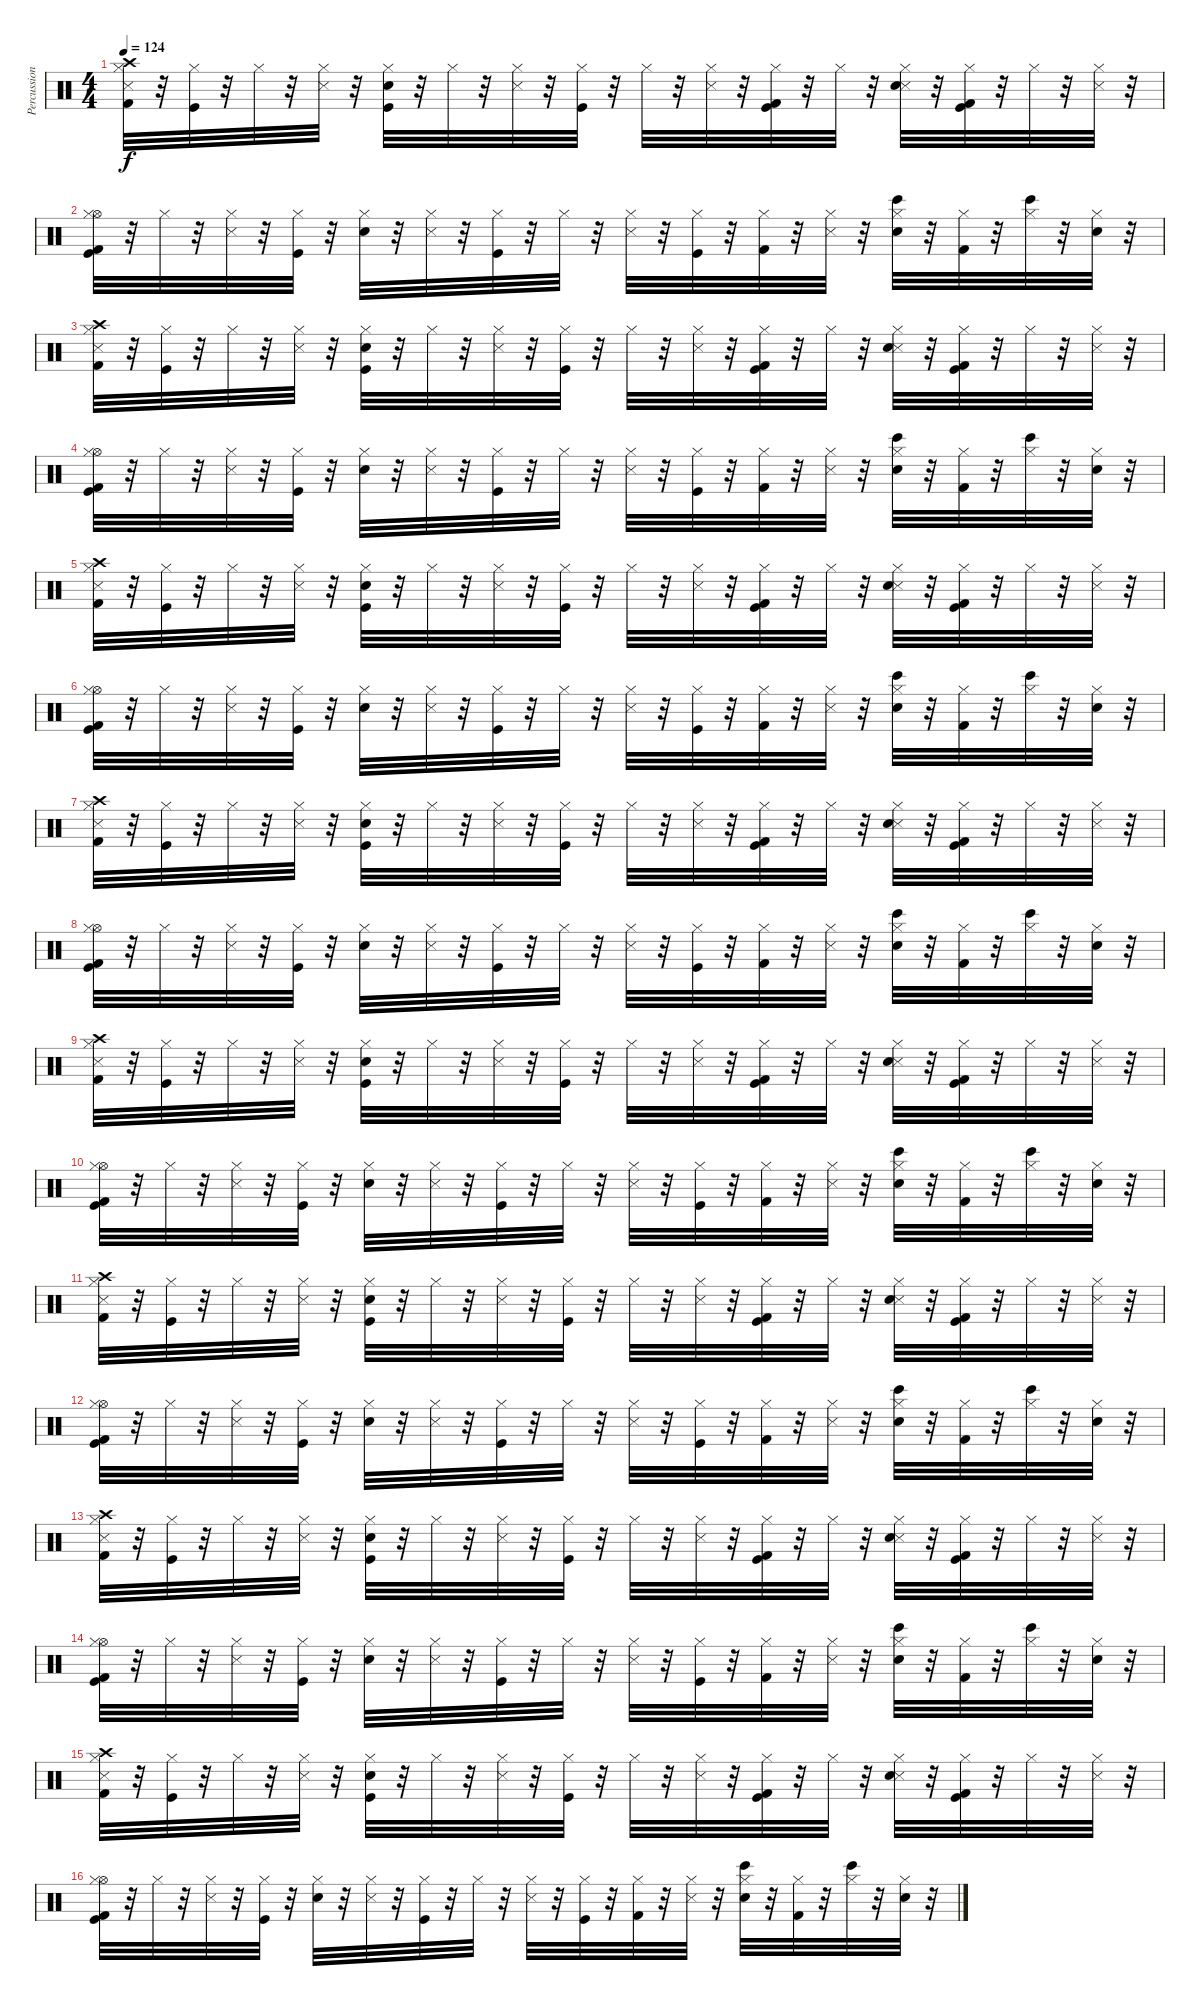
\track ("Percussions" "Percussion") {instrument percussion}
\staff {score}
\articulation defaults
\ts (4 4)
\tempo 124
\clef neutral
\ks c
("Metronome (hit)" "Crash high (hit)" "Kick (hit) 2" "Hi-Hat (closed)").32{dy f} r.32 ("Kick (hit)" "Hi-Hat (closed)").32 r.32 "Hi-Hat (closed)".32 r.32 ("Metronome (hit)" "Hi-Hat (closed)").32 r.32 ("Kick (hit)" "Hi-Hat (closed)" "Electric Snare (hit)").32 r.32 "Hi-Hat (closed)".32 r.32 ("Metronome (hit)" "Hi-Hat (closed)").32 r.32 ("Kick (hit)" "Hi-Hat (closed)").32 r.32 "Hi-Hat (closed)".32 r.32 ("Metronome (hit)" "Hi-Hat (closed)").32 r.32 ("Kick (hit)" "Hi-Hat (closed)" "Kick (hit) 2").32 r.32 "Hi-Hat (closed)".32 r.32 ("Metronome (hit)" "Hi-Hat (closed)" "Electric Snare (hit)").32 r.32 ("Kick (hit)" "Kick (hit) 2" "Hi-Hat (closed)").32 r.32 "Hi-Hat (closed)".32 r.32 ("Metronome (hit)" "Hi-Hat (closed)").32 r.32 |
("Kick (hit)" "Hi-Hat (open)" "Kick (hit) 2" "Hi-Hat (closed)").32 r.32 "Hi-Hat (closed)".32 r.32 ("Metronome (hit)" "Hi-Hat (closed)").32 r.32 ("Kick (hit)" "Hi-Hat (closed)").32 r.32 ("Electric Snare (hit)" "Hi-Hat (closed)").32 r.32 ("Metronome (hit)" "Hi-Hat (closed)").32 r.32 ("Kick (hit)" "Hi-Hat (closed)").32 r.32 "Hi-Hat (closed)".32 r.32 ("Metronome (hit)" "Hi-Hat (closed)").32 r.32 ("Kick (hit)" "Hi-Hat (closed)").32 r.32 ("Hi-Hat (closed)" "Kick (hit) 2").32 r.32 ("Metronome (hit)" "Hi-Hat (closed)").32 r.32 ("Bongo High (hit)" "Electric Snare (hit)" "Hi-Hat (closed)").32 r.32 ("Kick (hit) 2" "Hi-Hat (closed)").32 r.32 ("Bongo High (hit)" "Hi-Hat (closed)").32 r.32 ("Hi-Hat (closed)" "Electric Snare (hit)").32 r.32 |
("Metronome (hit)" "Crash high (hit)" "Kick (hit) 2" "Hi-Hat (closed)").32 r.32 ("Kick (hit)" "Hi-Hat (closed)").32 r.32 "Hi-Hat (closed)".32 r.32 ("Metronome (hit)" "Hi-Hat (closed)").32 r.32 ("Kick (hit)" "Hi-Hat (closed)" "Electric Snare (hit)").32 r.32 "Hi-Hat (closed)".32 r.32 ("Metronome (hit)" "Hi-Hat (closed)").32 r.32 ("Kick (hit)" "Hi-Hat (closed)").32 r.32 "Hi-Hat (closed)".32 r.32 ("Metronome (hit)" "Hi-Hat (closed)").32 r.32 ("Kick (hit)" "Hi-Hat (closed)" "Kick (hit) 2").32 r.32 "Hi-Hat (closed)".32 r.32 ("Metronome (hit)" "Hi-Hat (closed)" "Electric Snare (hit)").32 r.32 ("Kick (hit)" "Kick (hit) 2" "Hi-Hat (closed)").32 r.32 "Hi-Hat (closed)".32 r.32 ("Metronome (hit)" "Hi-Hat (closed)").32 r.32 |
("Kick (hit)" "Hi-Hat (open)" "Kick (hit) 2" "Hi-Hat (closed)").32 r.32 "Hi-Hat (closed)".32 r.32 ("Metronome (hit)" "Hi-Hat (closed)").32 r.32 ("Kick (hit)" "Hi-Hat (closed)").32 r.32 ("Electric Snare (hit)" "Hi-Hat (closed)").32 r.32 ("Metronome (hit)" "Hi-Hat (closed)").32 r.32 ("Kick (hit)" "Hi-Hat (closed)").32 r.32 "Hi-Hat (closed)".32 r.32 ("Metronome (hit)" "Hi-Hat (closed)").32 r.32 ("Kick (hit)" "Hi-Hat (closed)").32 r.32 ("Hi-Hat (closed)" "Kick (hit) 2").32 r.32 ("Metronome (hit)" "Hi-Hat (closed)").32 r.32 ("Bongo High (hit)" "Electric Snare (hit)" "Hi-Hat (closed)").32 r.32 ("Kick (hit) 2" "Hi-Hat (closed)").32 r.32 ("Bongo High (hit)" "Hi-Hat (closed)").32 r.32 ("Hi-Hat (closed)" "Electric Snare (hit)").32 r.32 |
("Metronome (hit)" "Crash high (hit)" "Kick (hit) 2" "Hi-Hat (closed)").32 r.32 ("Kick (hit)" "Hi-Hat (closed)").32 r.32 "Hi-Hat (closed)".32 r.32 ("Metronome (hit)" "Hi-Hat (closed)").32 r.32 ("Kick (hit)" "Hi-Hat (closed)" "Electric Snare (hit)").32 r.32 "Hi-Hat (closed)".32 r.32 ("Metronome (hit)" "Hi-Hat (closed)").32 r.32 ("Kick (hit)" "Hi-Hat (closed)").32 r.32 "Hi-Hat (closed)".32 r.32 ("Metronome (hit)" "Hi-Hat (closed)").32 r.32 ("Kick (hit)" "Hi-Hat (closed)" "Kick (hit) 2").32 r.32 "Hi-Hat (closed)".32 r.32 ("Metronome (hit)" "Hi-Hat (closed)" "Electric Snare (hit)").32 r.32 ("Kick (hit)" "Kick (hit) 2" "Hi-Hat (closed)").32 r.32 "Hi-Hat (closed)".32 r.32 ("Metronome (hit)" "Hi-Hat (closed)").32 r.32 |
("Kick (hit)" "Hi-Hat (open)" "Kick (hit) 2" "Hi-Hat (closed)").32 r.32 "Hi-Hat (closed)".32 r.32 ("Metronome (hit)" "Hi-Hat (closed)").32 r.32 ("Kick (hit)" "Hi-Hat (closed)").32 r.32 ("Electric Snare (hit)" "Hi-Hat (closed)").32 r.32 ("Metronome (hit)" "Hi-Hat (closed)").32 r.32 ("Kick (hit)" "Hi-Hat (closed)").32 r.32 "Hi-Hat (closed)".32 r.32 ("Metronome (hit)" "Hi-Hat (closed)").32 r.32 ("Kick (hit)" "Hi-Hat (closed)").32 r.32 ("Hi-Hat (closed)" "Kick (hit) 2").32 r.32 ("Metronome (hit)" "Hi-Hat (closed)").32 r.32 ("Bongo High (hit)" "Electric Snare (hit)" "Hi-Hat (closed)").32 r.32 ("Kick (hit) 2" "Hi-Hat (closed)").32 r.32 ("Bongo High (hit)" "Hi-Hat (closed)").32 r.32 ("Hi-Hat (closed)" "Electric Snare (hit)").32 r.32 |
("Metronome (hit)" "Crash high (hit)" "Kick (hit) 2" "Hi-Hat (closed)").32 r.32 ("Kick (hit)" "Hi-Hat (closed)").32 r.32 "Hi-Hat (closed)".32 r.32 ("Metronome (hit)" "Hi-Hat (closed)").32 r.32 ("Kick (hit)" "Hi-Hat (closed)" "Electric Snare (hit)").32 r.32 "Hi-Hat (closed)".32 r.32 ("Metronome (hit)" "Hi-Hat (closed)").32 r.32 ("Kick (hit)" "Hi-Hat (closed)").32 r.32 "Hi-Hat (closed)".32 r.32 ("Metronome (hit)" "Hi-Hat (closed)").32 r.32 ("Kick (hit)" "Hi-Hat (closed)" "Kick (hit) 2").32 r.32 "Hi-Hat (closed)".32 r.32 ("Metronome (hit)" "Hi-Hat (closed)" "Electric Snare (hit)").32 r.32 ("Kick (hit)" "Kick (hit) 2" "Hi-Hat (closed)").32 r.32 "Hi-Hat (closed)".32 r.32 ("Metronome (hit)" "Hi-Hat (closed)").32 r.32 |
("Kick (hit)" "Hi-Hat (open)" "Kick (hit) 2" "Hi-Hat (closed)").32 r.32 "Hi-Hat (closed)".32 r.32 ("Metronome (hit)" "Hi-Hat (closed)").32 r.32 ("Kick (hit)" "Hi-Hat (closed)").32 r.32 ("Electric Snare (hit)" "Hi-Hat (closed)").32 r.32 ("Metronome (hit)" "Hi-Hat (closed)").32 r.32 ("Kick (hit)" "Hi-Hat (closed)").32 r.32 "Hi-Hat (closed)".32 r.32 ("Metronome (hit)" "Hi-Hat (closed)").32 r.32 ("Kick (hit)" "Hi-Hat (closed)").32 r.32 ("Hi-Hat (closed)" "Kick (hit) 2").32 r.32 ("Metronome (hit)" "Hi-Hat (closed)").32 r.32 ("Bongo High (hit)" "Electric Snare (hit)" "Hi-Hat (closed)").32 r.32 ("Kick (hit) 2" "Hi-Hat (closed)").32 r.32 ("Bongo High (hit)" "Hi-Hat (closed)").32 r.32 ("Hi-Hat (closed)" "Electric Snare (hit)").32 r.32 |
("Metronome (hit)" "Crash high (hit)" "Kick (hit) 2" "Hi-Hat (closed)").32 r.32 ("Kick (hit)" "Hi-Hat (closed)").32 r.32 "Hi-Hat (closed)".32 r.32 ("Metronome (hit)" "Hi-Hat (closed)").32 r.32 ("Kick (hit)" "Hi-Hat (closed)" "Electric Snare (hit)").32 r.32 "Hi-Hat (closed)".32 r.32 ("Metronome (hit)" "Hi-Hat (closed)").32 r.32 ("Kick (hit)" "Hi-Hat (closed)").32 r.32 "Hi-Hat (closed)".32 r.32 ("Metronome (hit)" "Hi-Hat (closed)").32 r.32 ("Kick (hit)" "Hi-Hat (closed)" "Kick (hit) 2").32 r.32 "Hi-Hat (closed)".32 r.32 ("Metronome (hit)" "Hi-Hat (closed)" "Electric Snare (hit)").32 r.32 ("Kick (hit)" "Kick (hit) 2" "Hi-Hat (closed)").32 r.32 "Hi-Hat (closed)".32 r.32 ("Metronome (hit)" "Hi-Hat (closed)").32 r.32 |
("Kick (hit)" "Hi-Hat (open)" "Kick (hit) 2" "Hi-Hat (closed)").32 r.32 "Hi-Hat (closed)".32 r.32 ("Metronome (hit)" "Hi-Hat (closed)").32 r.32 ("Kick (hit)" "Hi-Hat (closed)").32 r.32 ("Electric Snare (hit)" "Hi-Hat (closed)").32 r.32 ("Metronome (hit)" "Hi-Hat (closed)").32 r.32 ("Kick (hit)" "Hi-Hat (closed)").32 r.32 "Hi-Hat (closed)".32 r.32 ("Metronome (hit)" "Hi-Hat (closed)").32 r.32 ("Kick (hit)" "Hi-Hat (closed)").32 r.32 ("Hi-Hat (closed)" "Kick (hit) 2").32 r.32 ("Metronome (hit)" "Hi-Hat (closed)").32 r.32 ("Bongo High (hit)" "Electric Snare (hit)" "Hi-Hat (closed)").32 r.32 ("Kick (hit) 2" "Hi-Hat (closed)").32 r.32 ("Bongo High (hit)" "Hi-Hat (closed)").32 r.32 ("Hi-Hat (closed)" "Electric Snare (hit)").32 r.32 |
("Metronome (hit)" "Crash high (hit)" "Kick (hit) 2" "Hi-Hat (closed)").32 r.32 ("Kick (hit)" "Hi-Hat (closed)").32 r.32 "Hi-Hat (closed)".32 r.32 ("Metronome (hit)" "Hi-Hat (closed)").32 r.32 ("Kick (hit)" "Hi-Hat (closed)" "Electric Snare (hit)").32 r.32 "Hi-Hat (closed)".32 r.32 ("Metronome (hit)" "Hi-Hat (closed)").32 r.32 ("Kick (hit)" "Hi-Hat (closed)").32 r.32 "Hi-Hat (closed)".32 r.32 ("Metronome (hit)" "Hi-Hat (closed)").32 r.32 ("Kick (hit)" "Hi-Hat (closed)" "Kick (hit) 2").32 r.32 "Hi-Hat (closed)".32 r.32 ("Metronome (hit)" "Hi-Hat (closed)" "Electric Snare (hit)").32 r.32 ("Kick (hit)" "Kick (hit) 2" "Hi-Hat (closed)").32 r.32 "Hi-Hat (closed)".32 r.32 ("Metronome (hit)" "Hi-Hat (closed)").32 r.32 |
("Kick (hit)" "Hi-Hat (open)" "Kick (hit) 2" "Hi-Hat (closed)").32 r.32 "Hi-Hat (closed)".32 r.32 ("Metronome (hit)" "Hi-Hat (closed)").32 r.32 ("Kick (hit)" "Hi-Hat (closed)").32 r.32 ("Electric Snare (hit)" "Hi-Hat (closed)").32 r.32 ("Metronome (hit)" "Hi-Hat (closed)").32 r.32 ("Kick (hit)" "Hi-Hat (closed)").32 r.32 "Hi-Hat (closed)".32 r.32 ("Metronome (hit)" "Hi-Hat (closed)").32 r.32 ("Kick (hit)" "Hi-Hat (closed)").32 r.32 ("Hi-Hat (closed)" "Kick (hit) 2").32 r.32 ("Metronome (hit)" "Hi-Hat (closed)").32 r.32 ("Bongo High (hit)" "Electric Snare (hit)" "Hi-Hat (closed)").32 r.32 ("Kick (hit) 2" "Hi-Hat (closed)").32 r.32 ("Bongo High (hit)" "Hi-Hat (closed)").32 r.32 ("Hi-Hat (closed)" "Electric Snare (hit)").32 r.32 |
("Metronome (hit)" "Crash high (hit)" "Kick (hit) 2" "Hi-Hat (closed)").32 r.32 ("Kick (hit)" "Hi-Hat (closed)").32 r.32 "Hi-Hat (closed)".32 r.32 ("Metronome (hit)" "Hi-Hat (closed)").32 r.32 ("Kick (hit)" "Hi-Hat (closed)" "Electric Snare (hit)").32 r.32 "Hi-Hat (closed)".32 r.32 ("Metronome (hit)" "Hi-Hat (closed)").32 r.32 ("Kick (hit)" "Hi-Hat (closed)").32 r.32 "Hi-Hat (closed)".32 r.32 ("Metronome (hit)" "Hi-Hat (closed)").32 r.32 ("Kick (hit)" "Hi-Hat (closed)" "Kick (hit) 2").32 r.32 "Hi-Hat (closed)".32 r.32 ("Metronome (hit)" "Hi-Hat (closed)" "Electric Snare (hit)").32 r.32 ("Kick (hit)" "Kick (hit) 2" "Hi-Hat (closed)").32 r.32 "Hi-Hat (closed)".32 r.32 ("Metronome (hit)" "Hi-Hat (closed)").32 r.32 |
("Kick (hit)" "Hi-Hat (open)" "Kick (hit) 2" "Hi-Hat (closed)").32 r.32 "Hi-Hat (closed)".32 r.32 ("Metronome (hit)" "Hi-Hat (closed)").32 r.32 ("Kick (hit)" "Hi-Hat (closed)").32 r.32 ("Electric Snare (hit)" "Hi-Hat (closed)").32 r.32 ("Metronome (hit)" "Hi-Hat (closed)").32 r.32 ("Kick (hit)" "Hi-Hat (closed)").32 r.32 "Hi-Hat (closed)".32 r.32 ("Metronome (hit)" "Hi-Hat (closed)").32 r.32 ("Kick (hit)" "Hi-Hat (closed)").32 r.32 ("Hi-Hat (closed)" "Kick (hit) 2").32 r.32 ("Metronome (hit)" "Hi-Hat (closed)").32 r.32 ("Bongo High (hit)" "Electric Snare (hit)" "Hi-Hat (closed)").32 r.32 ("Kick (hit) 2" "Hi-Hat (closed)").32 r.32 ("Bongo High (hit)" "Hi-Hat (closed)").32 r.32 ("Hi-Hat (closed)" "Electric Snare (hit)").32 r.32 |
("Metronome (hit)" "Crash high (hit)" "Kick (hit) 2" "Hi-Hat (closed)").32 r.32 ("Kick (hit)" "Hi-Hat (closed)").32 r.32 "Hi-Hat (closed)".32 r.32 ("Metronome (hit)" "Hi-Hat (closed)").32 r.32 ("Kick (hit)" "Hi-Hat (closed)" "Electric Snare (hit)").32 r.32 "Hi-Hat (closed)".32 r.32 ("Metronome (hit)" "Hi-Hat (closed)").32 r.32 ("Kick (hit)" "Hi-Hat (closed)").32 r.32 "Hi-Hat (closed)".32 r.32 ("Metronome (hit)" "Hi-Hat (closed)").32 r.32 ("Kick (hit)" "Hi-Hat (closed)" "Kick (hit) 2").32 r.32 "Hi-Hat (closed)".32 r.32 ("Metronome (hit)" "Hi-Hat (closed)" "Electric Snare (hit)").32 r.32 ("Kick (hit)" "Kick (hit) 2" "Hi-Hat (closed)").32 r.32 "Hi-Hat (closed)".32 r.32 ("Metronome (hit)" "Hi-Hat (closed)").32 r.32 |
("Kick (hit)" "Hi-Hat (open)" "Kick (hit) 2" "Hi-Hat (closed)").32 r.32 "Hi-Hat (closed)".32 r.32 ("Metronome (hit)" "Hi-Hat (closed)").32 r.32 ("Kick (hit)" "Hi-Hat (closed)").32 r.32 ("Electric Snare (hit)" "Hi-Hat (closed)").32 r.32 ("Metronome (hit)" "Hi-Hat (closed)").32 r.32 ("Kick (hit)" "Hi-Hat (closed)").32 r.32 "Hi-Hat (closed)".32 r.32 ("Metronome (hit)" "Hi-Hat (closed)").32 r.32 ("Kick (hit)" "Hi-Hat (closed)").32 r.32 ("Hi-Hat (closed)" "Kick (hit) 2").32 r.32 ("Metronome (hit)" "Hi-Hat (closed)").32 r.32 ("Bongo High (hit)" "Electric Snare (hit)" "Hi-Hat (closed)").32 r.32 ("Kick (hit) 2" "Hi-Hat (closed)").32 r.32 ("Bongo High (hit)" "Hi-Hat (closed)").32 r.32 ("Hi-Hat (closed)" "Electric Snare (hit)").32 r.32
